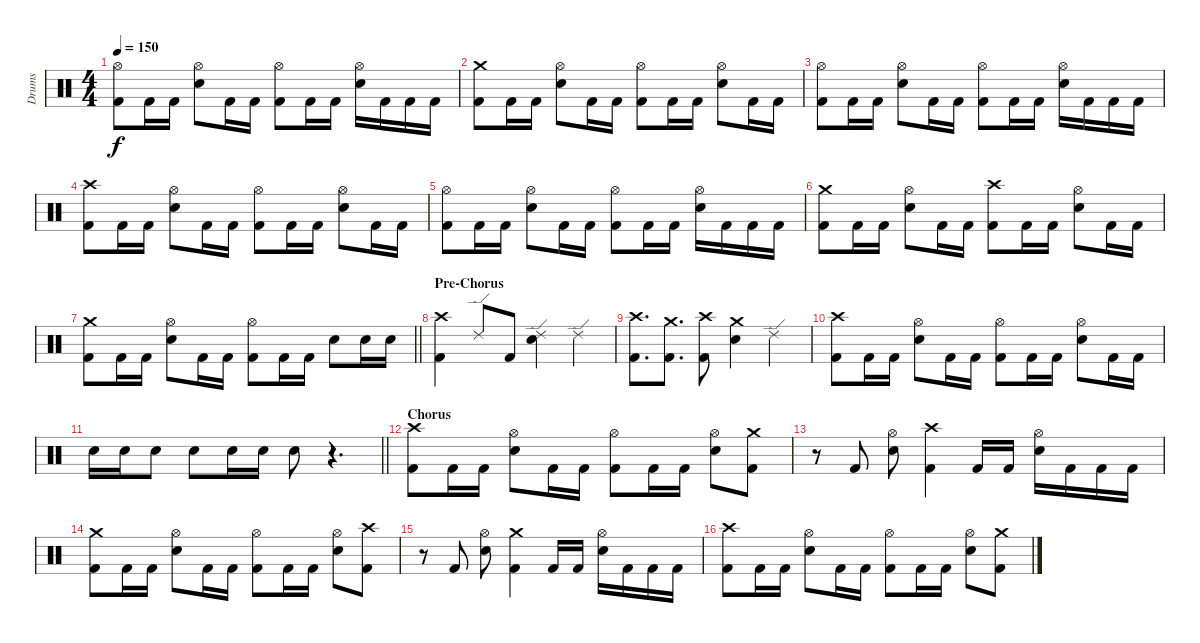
\track ("Drums" "Drums") {instrument percussion}
\staff {score}
\articulation defaults
\ts (4 4)
\tempo 150
\clef neutral
\ks c
("Hi-Hat (open)" "Kick (hit) 2").8{dy f} "Kick (hit) 2".16 "Kick (hit) 2".16 ("Hi-Hat (open)" "Snare (hit) 2").8 "Kick (hit) 2".16 "Kick (hit) 2".16 ("Hi-Hat (open)" "Kick (hit) 2").8 "Kick (hit) 2".16 "Kick (hit) 2".16 ("Hi-Hat (open)" "Snare (hit) 2").16 "Kick (hit) 2".16 "Kick (hit) 2".16 "Kick (hit) 2".16 |
("Crash medium (hit)" "Kick (hit) 2").8 "Kick (hit) 2".16 "Kick (hit) 2".16 ("Hi-Hat (open)" "Snare (hit) 2").8 "Kick (hit) 2".16 "Kick (hit) 2".16 ("Hi-Hat (open)" "Kick (hit) 2").8 "Kick (hit) 2".16 "Kick (hit) 2".16 ("Hi-Hat (open)" "Snare (hit) 2").8 "Kick (hit) 2".16 "Kick (hit) 2".16 |
("Hi-Hat (open)" "Kick (hit) 2").8 "Kick (hit) 2".16 "Kick (hit) 2".16 ("Hi-Hat (open)" "Snare (hit) 2").8 "Kick (hit) 2".16 "Kick (hit) 2".16 ("Hi-Hat (open)" "Kick (hit) 2").8 "Kick (hit) 2".16 "Kick (hit) 2".16 ("Hi-Hat (open)" "Snare (hit) 2").16 "Kick (hit) 2".16 "Kick (hit) 2".16 "Kick (hit) 2".16 |
("Crash high (hit)" "Kick (hit) 2").8 "Kick (hit) 2".16 "Kick (hit) 2".16 ("Hi-Hat (open)" "Snare (hit) 2").8 "Kick (hit) 2".16 "Kick (hit) 2".16 ("Hi-Hat (open)" "Kick (hit) 2").8 "Kick (hit) 2".16 "Kick (hit) 2".16 ("Hi-Hat (open)" "Snare (hit) 2").8 "Kick (hit) 2".16 "Kick (hit) 2".16 |
("Hi-Hat (open)" "Kick (hit) 2").8 "Kick (hit) 2".16 "Kick (hit) 2".16 ("Hi-Hat (open)" "Snare (hit) 2").8 "Kick (hit) 2".16 "Kick (hit) 2".16 ("Hi-Hat (open)" "Kick (hit) 2").8 "Kick (hit) 2".16 "Kick (hit) 2".16 ("Hi-Hat (open)" "Snare (hit) 2").16 "Kick (hit) 2".16 "Kick (hit) 2".16 "Kick (hit) 2".16 |
("Crash medium (hit)" "Kick (hit) 2").8 "Kick (hit) 2".16 "Kick (hit) 2".16 ("Hi-Hat (open)" "Snare (hit) 2").8 "Kick (hit) 2".16 "Kick (hit) 2".16 ("Crash high (hit)" "Kick (hit) 2").8 "Kick (hit) 2".16 "Kick (hit) 2".16 ("Hi-Hat (open)" "Snare (hit) 2").8 "Kick (hit) 2".16 "Kick (hit) 2".16 |
\barLineRight lightlight
("Crash medium (hit)" "Kick (hit) 2").8 "Kick (hit) 2".16 "Kick (hit) 2".16 ("Hi-Hat (open)" "Snare (hit) 2").8 "Kick (hit) 2".16 "Kick (hit) 2".16 ("Hi-Hat (open)" "Kick (hit) 2").8 "Kick (hit) 2".16 "Kick (hit) 2".16 "Snare (hit) 2".8 "Snare (hit) 2".16 "Snare (hit) 2".16 |
\section ("" "Pre-Chorus")
("Crash high (hit)" "Kick (hit) 2").4 "Ride (edge) 2".8 "Kick (hit) 2".8 ("Ride (edge) 2" "Snare (hit) 2").4 "Ride (edge) 2".4 |
("Crash high (hit)" "Kick (hit) 2").8{d} ("Crash medium (hit)" "Kick (hit) 2").8{d} ("Crash high (hit)" "Kick (hit) 2").8 ("Crash medium (hit)" "Snare (hit) 2").4 "Ride (edge) 2".4 |
("Crash high (hit)" "Kick (hit) 2").8 "Kick (hit) 2".16 "Kick (hit) 2".16 ("Hi-Hat (open)" "Snare (hit) 2").8 "Kick (hit) 2".16 "Kick (hit) 2".16 ("Hi-Hat (open)" "Kick (hit) 2").8 "Kick (hit) 2".16 "Kick (hit) 2".16 ("Hi-Hat (open)" "Snare (hit) 2").8 "Kick (hit) 2".16 "Kick (hit) 2".16 |
\barLineRight lightlight "Snare (hit) 2".16 "Snare (hit) 2".16 "Snare (hit) 2".8 "Snare (hit) 2".8 "Snare (hit) 2".16 "Snare (hit) 2".16 "Snare (hit) 2".8
r.4{d} |
\section ("" "Chorus")
("Crash high (hit)" "Kick (hit) 2").8 "Kick (hit) 2".16 "Kick (hit) 2".16 ("Hi-Hat (open)" "Snare (hit) 2").8 "Kick (hit) 2".16 "Kick (hit) 2".16 ("Hi-Hat (open)" "Kick (hit) 2").8 "Kick (hit) 2".16 "Kick (hit) 2".16 ("Hi-Hat (open)" "Snare (hit) 2").8 ("Crash medium (hit)" "Kick (hit) 2").8 |
r.8 "Kick (hit) 2".8 ("Hi-Hat (open)" "Snare (hit) 2").8 ("Crash high (hit)" "Kick (hit) 2").4 "Kick (hit) 2".16 "Kick (hit) 2".16 ("Hi-Hat (open)" "Snare (hit) 2").16 "Kick (hit) 2".16 "Kick (hit) 2".16 "Kick (hit) 2".16 |
("Crash medium (hit)" "Kick (hit) 2").8 "Kick (hit) 2".16 "Kick (hit) 2".16 ("Hi-Hat (open)" "Snare (hit) 2").8 "Kick (hit) 2".16 "Kick (hit) 2".16 ("Hi-Hat (open)" "Kick (hit) 2").8 "Kick (hit) 2".16 "Kick (hit) 2".16 ("Hi-Hat (open)" "Snare (hit) 2").8 ("Crash high (hit)" "Kick (hit) 2").8 |
r.8 "Kick (hit) 2".8 ("Hi-Hat (open)" "Snare (hit) 2").8 ("Crash medium (hit)" "Kick (hit) 2").4 "Kick (hit) 2".16 "Kick (hit) 2".16 ("Hi-Hat (open)" "Snare (hit) 2").16 "Kick (hit) 2".16 "Kick (hit) 2".16 "Kick (hit) 2".16 |
("Crash high (hit)" "Kick (hit) 2").8 "Kick (hit) 2".16 "Kick (hit) 2".16 ("Hi-Hat (open)" "Snare (hit) 2").8 "Kick (hit) 2".16 "Kick (hit) 2".16 ("Hi-Hat (open)" "Kick (hit) 2").8 "Kick (hit) 2".16 "Kick (hit) 2".16 ("Hi-Hat (open)" "Snare (hit) 2").8 ("Crash medium (hit)" "Kick (hit) 2").8
